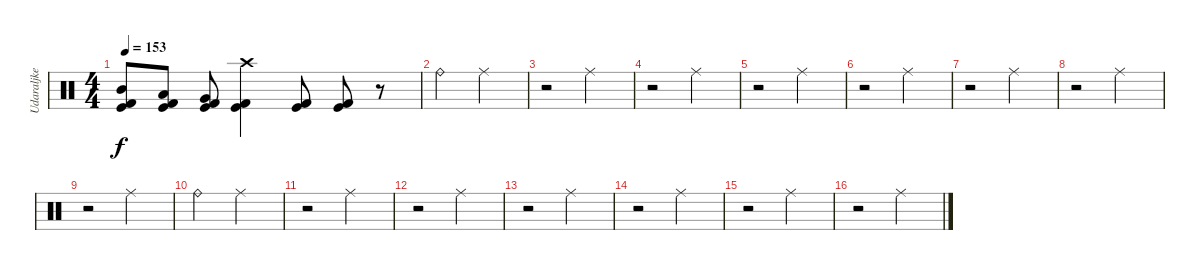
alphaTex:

\track ("Udaraljke" "Udaraljke") {instrument percussion}
\staff {score}
\articulation defaults
\ts (4 4)
\tempo 153
\clef neutral
\ks c
("Mid Tom (hit)" "Kick (hit) 2" "Kick (hit)").8{dy f} ("Low Tom (hit)" "Kick (hit) 2" "Kick (hit)").8 ("Very Low Tom (hit)" "Kick (hit) 2" "Kick (hit)").8 ("Crash high (hit)" "Kick (hit) 2" "Kick (hit)").4 ("Kick (hit) 2" "Kick (hit)").8 ("Kick (hit) 2" "Kick (hit)").8 r.8 |
"Ride (bell)".2 "Ride (middle)".2 |
r.2 "Ride (middle)".2 |
r.2 "Ride (middle)".2 |
r.2 "Ride (middle)".2 |
r.2 "Ride (middle)".2 |
r.2 "Ride (middle)".2 |
r.2 "Ride (middle)".2 |
r.2 "Ride (middle)".2 |
"Ride (bell)".2 "Ride (middle)".2 |
r.2 "Ride (middle)".2 |
r.2 "Ride (middle)".2 |
r.2 "Ride (middle)".2 |
r.2 "Ride (middle)".2 |
r.2 "Ride (middle)".2 |
r.2 "Ride (middle)".2
